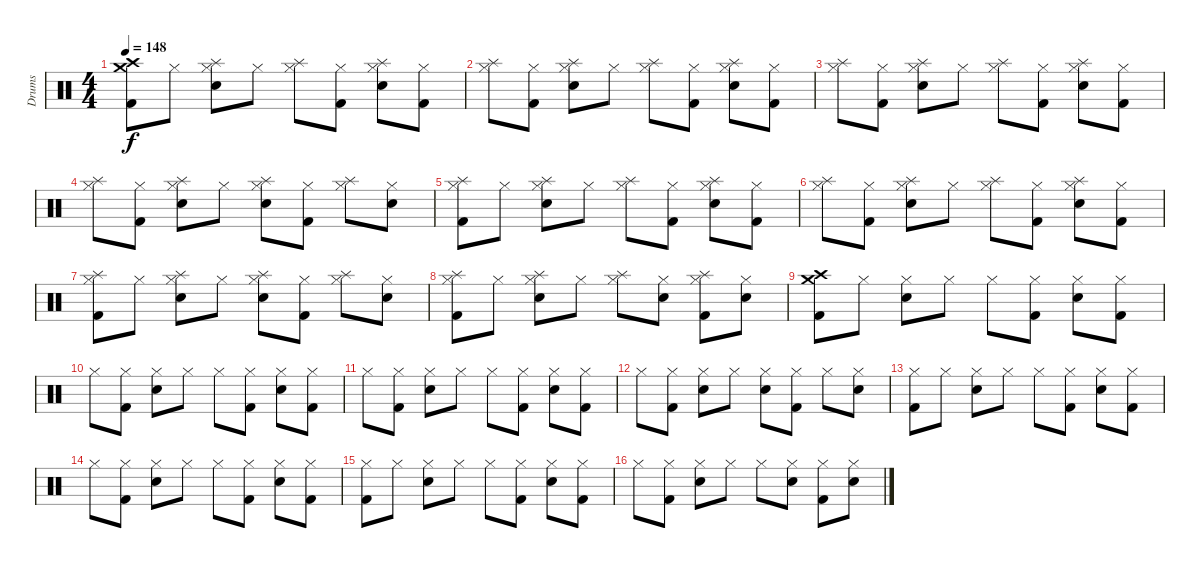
\track ("Drums" "Drums") {instrument percussion}
\staff {score}
\articulation defaults
\ts (4 4)
\tempo 148
\clef neutral
\ks c
("Crash high (hit)" "Crash medium (hit)" "Kick (hit) 2").8{dy f} "Hi-Hat (closed)".8 ("Hi-Hat (closed)" "Snare (hit) 2" "Splash (hit)").8 "Hi-Hat (closed)".8 ("Hi-Hat (closed)" "Splash (hit)").8 ("Hi-Hat (closed)" "Kick (hit) 2").8 ("Hi-Hat (closed)" "Snare (hit) 2" "Splash (hit)").8 ("Hi-Hat (closed)" "Kick (hit) 2").8 |
("Hi-Hat (closed)" "Splash (hit)").8 ("Hi-Hat (closed)" "Kick (hit) 2").8 ("Hi-Hat (closed)" "Splash (hit)" "Snare (hit) 2").8{volume 13 balance 8} "Hi-Hat (closed)".8 ("Hi-Hat (closed)" "Splash (hit)").8 ("Hi-Hat (closed)" "Kick (hit) 2").8 ("Hi-Hat (closed)" "Snare (hit) 2" "Splash (hit)").8 ("Hi-Hat (closed)" "Kick (hit) 2").8 |
("Hi-Hat (closed)" "Splash (hit)").8 ("Hi-Hat (closed)" "Kick (hit) 2").8 ("Hi-Hat (closed)" "Splash (hit)" "Snare (hit) 2").8 "Hi-Hat (closed)".8 ("Hi-Hat (closed)" "Splash (hit)").8 ("Hi-Hat (closed)" "Kick (hit) 2").8 ("Hi-Hat (closed)" "Snare (hit) 2" "Splash (hit)").8 ("Hi-Hat (closed)" "Kick (hit) 2").8 |
("Hi-Hat (closed)" "Splash (hit)").8 ("Hi-Hat (closed)" "Kick (hit) 2").8 ("Hi-Hat (closed)" "Splash (hit)" "Snare (hit) 2").8 "Hi-Hat (closed)".8 ("Hi-Hat (closed)" "Snare (hit) 2" "Splash (hit)").8 ("Hi-Hat (closed)" "Kick (hit) 2").8 ("Hi-Hat (closed)" "Splash (hit)").8 ("Hi-Hat (closed)" "Snare (hit) 2").8 |
("Hi-Hat (closed)" "Splash (hit)" "Kick (hit) 2").8 "Hi-Hat (closed)".8 ("Hi-Hat (closed)" "Splash (hit)" "Snare (hit) 2").8 "Hi-Hat (closed)".8 ("Hi-Hat (closed)" "Splash (hit)").8 ("Hi-Hat (closed)" "Kick (hit) 2").8 ("Hi-Hat (closed)" "Snare (hit) 2" "Splash (hit)").8 ("Hi-Hat (closed)" "Kick (hit) 2").8 |
("Hi-Hat (closed)" "Splash (hit)").8 ("Hi-Hat (closed)" "Kick (hit) 2").8 ("Hi-Hat (closed)" "Snare (hit) 2" "Splash (hit)").8 "Hi-Hat (closed)".8 ("Hi-Hat (closed)" "Splash (hit)").8 ("Hi-Hat (closed)" "Kick (hit) 2").8 ("Hi-Hat (closed)" "Snare (hit) 2" "Splash (hit)").8 ("Hi-Hat (closed)" "Kick (hit) 2").8 |
("Hi-Hat (closed)" "Kick (hit) 2" "Splash (hit)").8 "Hi-Hat (closed)".8 ("Hi-Hat (closed)" "Snare (hit) 2" "Splash (hit)").8 "Hi-Hat (closed)".8 ("Hi-Hat (closed)" "Snare (hit) 2" "Splash (hit)").8 ("Hi-Hat (closed)" "Kick (hit) 2").8 ("Hi-Hat (closed)" "Splash (hit)").8 ("Hi-Hat (closed)" "Snare (hit) 2").8 |
("Hi-Hat (closed)" "Kick (hit) 2" "Splash (hit)").8 "Hi-Hat (closed)".8 ("Hi-Hat (closed)" "Snare (hit) 2" "Splash (hit)").8 "Hi-Hat (closed)".8 ("Hi-Hat (closed)" "Splash (hit)").8 ("Hi-Hat (closed)" "Snare (hit) 2").8 ("Hi-Hat (closed)" "Kick (hit) 2" "Splash (hit)").8 ("Hi-Hat (closed)" "Snare (hit) 2").8 |
("Crash medium (hit)" "Crash high (hit)" "Kick (hit) 2").8 "Hi-Hat (closed)".8 ("Hi-Hat (closed)" "Snare (hit) 2").8 "Hi-Hat (closed)".8 "Hi-Hat (closed)".8 ("Hi-Hat (closed)" "Kick (hit) 2").8 ("Hi-Hat (closed)" "Snare (hit) 2").8 ("Hi-Hat (closed)" "Kick (hit) 2").8 |
"Hi-Hat (closed)".8 ("Hi-Hat (closed)" "Kick (hit) 2").8 ("Hi-Hat (closed)" "Snare (hit) 2").8{volume 13 balance 8} "Hi-Hat (closed)".8 "Hi-Hat (closed)".8 ("Hi-Hat (closed)" "Kick (hit) 2").8 ("Hi-Hat (closed)" "Snare (hit) 2").8 ("Hi-Hat (closed)" "Kick (hit) 2").8 |
"Hi-Hat (closed)".8 ("Hi-Hat (closed)" "Kick (hit) 2").8 ("Hi-Hat (closed)" "Snare (hit) 2").8 "Hi-Hat (closed)".8 "Hi-Hat (closed)".8 ("Hi-Hat (closed)" "Kick (hit) 2").8 ("Hi-Hat (closed)" "Snare (hit) 2").8 ("Hi-Hat (closed)" "Kick (hit) 2").8 |
"Hi-Hat (closed)".8 ("Hi-Hat (closed)" "Kick (hit) 2").8 ("Hi-Hat (closed)" "Snare (hit) 2").8 "Hi-Hat (closed)".8 ("Hi-Hat (closed)" "Snare (hit) 2").8 ("Hi-Hat (closed)" "Kick (hit) 2").8 "Hi-Hat (closed)".8 ("Hi-Hat (closed)" "Snare (hit) 2").8 |
("Hi-Hat (closed)" "Kick (hit) 2").8 "Hi-Hat (closed)".8 ("Hi-Hat (closed)" "Snare (hit) 2").8 "Hi-Hat (closed)".8 "Hi-Hat (closed)".8 ("Hi-Hat (closed)" "Kick (hit) 2").8 ("Hi-Hat (closed)" "Snare (hit) 2").8 ("Hi-Hat (closed)" "Kick (hit) 2").8 |
"Hi-Hat (closed)".8 ("Hi-Hat (closed)" "Kick (hit) 2").8 ("Hi-Hat (closed)" "Snare (hit) 2").8 "Hi-Hat (closed)".8 "Hi-Hat (closed)".8 ("Hi-Hat (closed)" "Kick (hit) 2").8 ("Hi-Hat (closed)" "Snare (hit) 2").8 ("Hi-Hat (closed)" "Kick (hit) 2").8 |
("Hi-Hat (closed)" "Kick (hit) 2").8 "Hi-Hat (closed)".8 ("Hi-Hat (closed)" "Snare (hit) 2").8 "Hi-Hat (closed)".8 "Hi-Hat (closed)".8 ("Hi-Hat (closed)" "Kick (hit) 2").8 ("Hi-Hat (closed)" "Snare (hit) 2").8 ("Hi-Hat (closed)" "Kick (hit) 2").8 |
"Hi-Hat (closed)".8 ("Hi-Hat (closed)" "Kick (hit) 2").8 ("Hi-Hat (closed)" "Snare (hit) 2").8 "Hi-Hat (closed)".8 "Hi-Hat (closed)".8 ("Hi-Hat (closed)" "Snare (hit) 2").8 ("Hi-Hat (closed)" "Kick (hit) 2").8 ("Hi-Hat (closed)" "Snare (hit) 2").8
